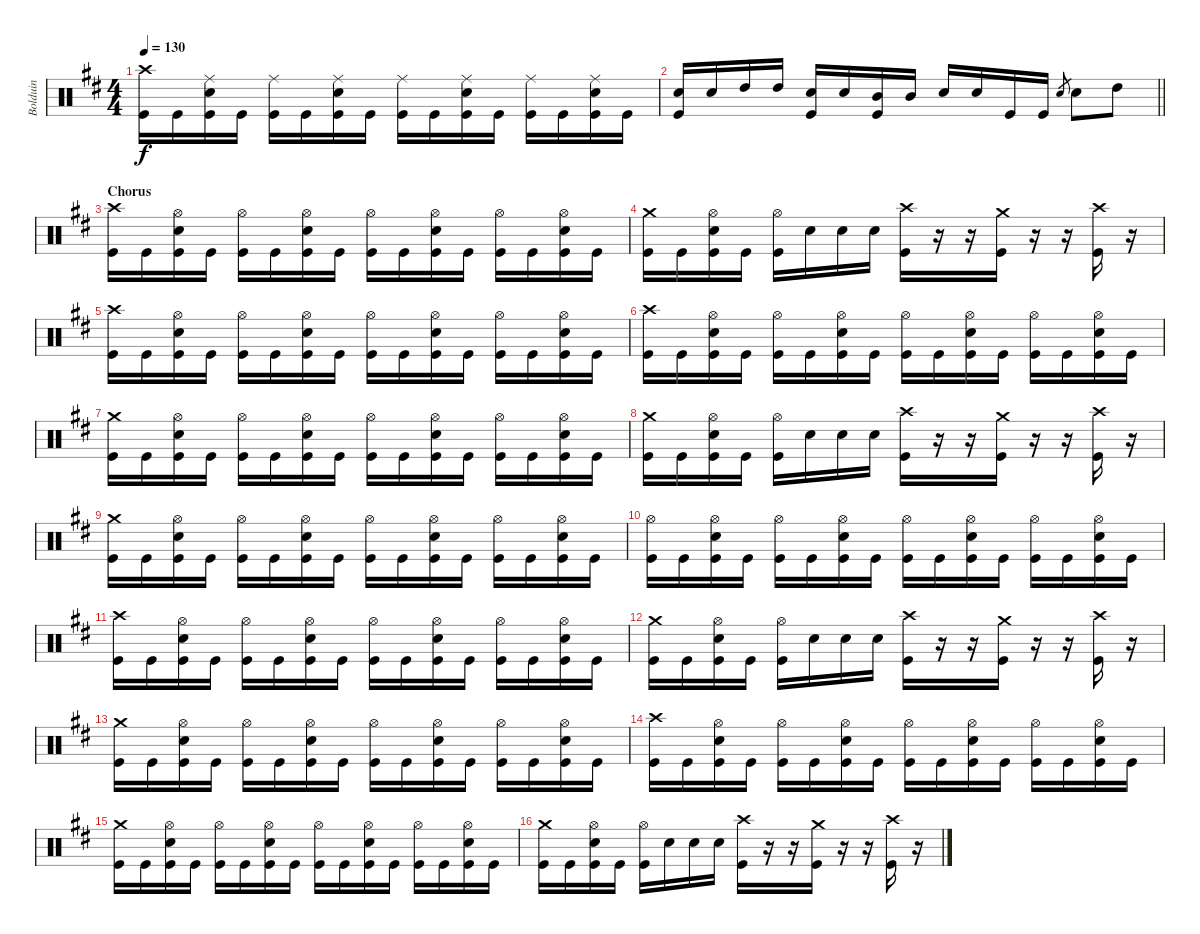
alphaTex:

\track ("Bolduin" "Bolduin") {instrument percussion}
\staff {score}
\articulation defaults
\ts (4 4)
\tempo 130
\clef neutral
\ks bminor
("Kick (hit)" "Crash high (hit)").16{dy f} "Kick (hit)".16 ("Kick (hit)" "Ride (middle)" "Snare (hit) 2").16 "Kick (hit)".16 ("Kick (hit)" "Ride (middle)").16 "Kick (hit)".16 ("Kick (hit)" "Ride (middle)" "Snare (hit) 2").16 "Kick (hit)".16 ("Kick (hit)" "Ride (middle)").16 "Kick (hit)".16 ("Kick (hit)" "Ride (middle)" "Snare (hit) 2").16 "Kick (hit)".16 ("Kick (hit)" "Ride (middle)").16 "Kick (hit)".16 ("Kick (hit)" "Ride (middle)" "Snare (hit) 2").16 "Kick (hit)".16 |
\barLineRight lightlight
("Snare (hit) 2" "Kick (hit)").16 "Snare (hit) 2".16 "High Tom (hit)".16 "High Tom (hit)".16 ("Snare (hit) 2" "Kick (hit)").16 "Snare (hit) 2".16 ("Kick (hit)" "Mid Tom (hit)").16 "Mid Tom (hit)".16 "Snare (hit) 2".16 "Snare (hit) 2".16 "Kick (hit)".16 "Kick (hit)".16 "Snare (hit) 2".8{gr} "Snare (hit) 2".8 "High Tom (hit)".8 |
\section ("" "Chorus")
("Crash high (hit)" "Kick (hit)").16 "Kick (hit)".16 ("Hi-Hat (open)" "Kick (hit)" "Snare (hit) 2").16 "Kick (hit)".16 ("Hi-Hat (open)" "Kick (hit)").16 "Kick (hit)".16 ("Hi-Hat (open)" "Kick (hit)" "Snare (hit) 2").16 "Kick (hit)".16 ("Hi-Hat (open)" "Kick (hit)").16 "Kick (hit)".16 ("Hi-Hat (open)" "Kick (hit)" "Snare (hit) 2").16 "Kick (hit)".16 ("Hi-Hat (open)" "Kick (hit)").16 "Kick (hit)".16 ("Hi-Hat (open)" "Kick (hit)" "Snare (hit) 2").16 "Kick (hit)".16 |
("Crash medium (hit)" "Kick (hit)").16 "Kick (hit)".16 ("Hi-Hat (open)" "Kick (hit)" "Snare (hit) 2").16 "Kick (hit)".16 ("Hi-Hat (open)" "Kick (hit)").16 "Snare (hit) 2".16 "Snare (hit) 2".16 "Snare (hit) 2".16 ("Kick (hit)" "Crash high (hit)").16 r.16 r.16 ("Crash medium (hit)" "Kick (hit)").16 r.16 r.16 ("Kick (hit)" "Crash high (hit)").16 r.16 |
("Kick (hit)" "Crash high (hit)").16 "Kick (hit)".16 ("Kick (hit)" "Hi-Hat (open)" "Snare (hit) 2").16 "Kick (hit)".16 ("Kick (hit)" "Hi-Hat (open)").16 "Kick (hit)".16 ("Kick (hit)" "Hi-Hat (open)" "Snare (hit) 2").16 "Kick (hit)".16 ("Kick (hit)" "Hi-Hat (open)").16 "Kick (hit)".16 ("Kick (hit)" "Hi-Hat (open)" "Snare (hit) 2").16 "Kick (hit)".16 ("Kick (hit)" "Hi-Hat (open)").16 "Kick (hit)".16 ("Kick (hit)" "Hi-Hat (open)" "Snare (hit) 2").16 "Kick (hit)".16 |
("Kick (hit)" "Crash high (hit)").16 "Kick (hit)".16 ("Kick (hit)" "Hi-Hat (open)" "Snare (hit) 2").16 "Kick (hit)".16 ("Kick (hit)" "Hi-Hat (open)").16 "Kick (hit)".16 ("Kick (hit)" "Hi-Hat (open)" "Snare (hit) 2").16 "Kick (hit)".16 ("Kick (hit)" "Hi-Hat (open)").16 "Kick (hit)".16 ("Kick (hit)" "Hi-Hat (open)" "Snare (hit) 2").16 "Kick (hit)".16 ("Kick (hit)" "Hi-Hat (open)").16 "Kick (hit)".16 ("Kick (hit)" "Hi-Hat (open)" "Snare (hit) 2").16 "Kick (hit)".16 |
("Kick (hit)" "Crash medium (hit)").16 "Kick (hit)".16 ("Kick (hit)" "Hi-Hat (open)" "Snare (hit) 2").16 "Kick (hit)".16 ("Kick (hit)" "Hi-Hat (open)").16 "Kick (hit)".16 ("Kick (hit)" "Hi-Hat (open)" "Snare (hit) 2").16 "Kick (hit)".16 ("Kick (hit)" "Hi-Hat (open)").16 "Kick (hit)".16 ("Kick (hit)" "Hi-Hat (open)" "Snare (hit) 2").16 "Kick (hit)".16 ("Kick (hit)" "Hi-Hat (open)").16 "Kick (hit)".16 ("Kick (hit)" "Hi-Hat (open)" "Snare (hit) 2").16 "Kick (hit)".16 |
("Crash medium (hit)" "Kick (hit)").16 "Kick (hit)".16 ("Hi-Hat (open)" "Kick (hit)" "Snare (hit) 2").16 "Kick (hit)".16 ("Hi-Hat (open)" "Kick (hit)").16 "Snare (hit) 2".16 "Snare (hit) 2".16 "Snare (hit) 2".16 ("Kick (hit)" "Crash high (hit)").16 r.16 r.16 ("Crash medium (hit)" "Kick (hit)").16 r.16 r.16 ("Kick (hit)" "Crash high (hit)").16 r.16 |
("Kick (hit)" "Crash medium (hit)").16 "Kick (hit)".16 ("Kick (hit)" "Hi-Hat (open)" "Snare (hit) 2").16 "Kick (hit)".16 ("Kick (hit)" "Hi-Hat (open)").16 "Kick (hit)".16 ("Kick (hit)" "Hi-Hat (open)" "Snare (hit) 2").16 "Kick (hit)".16 ("Kick (hit)" "Hi-Hat (open)").16 "Kick (hit)".16 ("Kick (hit)" "Hi-Hat (open)" "Snare (hit) 2").16 "Kick (hit)".16 ("Kick (hit)" "Hi-Hat (open)").16 "Kick (hit)".16 ("Kick (hit)" "Hi-Hat (open)" "Snare (hit) 2").16 "Kick (hit)".16 |
("Kick (hit)" "Hi-Hat (open)").16 "Kick (hit)".16 ("Kick (hit)" "Hi-Hat (open)" "Snare (hit) 2").16 "Kick (hit)".16 ("Kick (hit)" "Hi-Hat (open)").16 "Kick (hit)".16 ("Kick (hit)" "Hi-Hat (open)" "Snare (hit) 2").16 "Kick (hit)".16 ("Kick (hit)" "Hi-Hat (open)").16 "Kick (hit)".16 ("Kick (hit)" "Hi-Hat (open)" "Snare (hit) 2").16 "Kick (hit)".16 ("Kick (hit)" "Hi-Hat (open)").16 "Kick (hit)".16 ("Kick (hit)" "Hi-Hat (open)" "Snare (hit) 2").16 "Kick (hit)".16 |
("Kick (hit)" "Crash high (hit)").16 "Kick (hit)".16 ("Kick (hit)" "Hi-Hat (open)" "Snare (hit) 2").16 "Kick (hit)".16 ("Kick (hit)" "Hi-Hat (open)").16 "Kick (hit)".16 ("Kick (hit)" "Hi-Hat (open)" "Snare (hit) 2").16 "Kick (hit)".16 ("Kick (hit)" "Hi-Hat (open)").16 "Kick (hit)".16 ("Kick (hit)" "Hi-Hat (open)" "Snare (hit) 2").16 "Kick (hit)".16 ("Kick (hit)" "Hi-Hat (open)").16 "Kick (hit)".16 ("Kick (hit)" "Hi-Hat (open)" "Snare (hit) 2").16 "Kick (hit)".16 |
("Crash medium (hit)" "Kick (hit)").16 "Kick (hit)".16 ("Hi-Hat (open)" "Kick (hit)" "Snare (hit) 2").16 "Kick (hit)".16 ("Hi-Hat (open)" "Kick (hit)").16 "Snare (hit) 2".16 "Snare (hit) 2".16 "Snare (hit) 2".16 ("Kick (hit)" "Crash high (hit)").16 r.16 r.16 ("Crash medium (hit)" "Kick (hit)").16 r.16 r.16 ("Kick (hit)" "Crash high (hit)").16 r.16 |
("Kick (hit)" "Crash medium (hit)").16 "Kick (hit)".16 ("Kick (hit)" "Hi-Hat (open)" "Snare (hit) 2").16 "Kick (hit)".16 ("Kick (hit)" "Hi-Hat (open)").16 "Kick (hit)".16 ("Kick (hit)" "Hi-Hat (open)" "Snare (hit) 2").16 "Kick (hit)".16 ("Kick (hit)" "Hi-Hat (open)").16 "Kick (hit)".16 ("Kick (hit)" "Hi-Hat (open)" "Snare (hit) 2").16 "Kick (hit)".16 ("Kick (hit)" "Hi-Hat (open)").16 "Kick (hit)".16 ("Kick (hit)" "Hi-Hat (open)" "Snare (hit) 2").16 "Kick (hit)".16 |
("Kick (hit)" "Crash high (hit)").16 "Kick (hit)".16 ("Kick (hit)" "Hi-Hat (open)" "Snare (hit) 2").16 "Kick (hit)".16 ("Kick (hit)" "Hi-Hat (open)").16 "Kick (hit)".16 ("Kick (hit)" "Hi-Hat (open)" "Snare (hit) 2").16 "Kick (hit)".16 ("Kick (hit)" "Hi-Hat (open)").16 "Kick (hit)".16 ("Kick (hit)" "Hi-Hat (open)" "Snare (hit) 2").16 "Kick (hit)".16 ("Kick (hit)" "Hi-Hat (open)").16 "Kick (hit)".16 ("Kick (hit)" "Hi-Hat (open)" "Snare (hit) 2").16 "Kick (hit)".16 |
("Kick (hit)" "Crash medium (hit)").16 "Kick (hit)".16 ("Kick (hit)" "Hi-Hat (open)" "Snare (hit) 2").16 "Kick (hit)".16 ("Kick (hit)" "Hi-Hat (open)").16 "Kick (hit)".16 ("Kick (hit)" "Hi-Hat (open)" "Snare (hit) 2").16 "Kick (hit)".16 ("Kick (hit)" "Hi-Hat (open)").16 "Kick (hit)".16 ("Kick (hit)" "Hi-Hat (open)" "Snare (hit) 2").16 "Kick (hit)".16 ("Kick (hit)" "Hi-Hat (open)").16 "Kick (hit)".16 ("Kick (hit)" "Hi-Hat (open)" "Snare (hit) 2").16 "Kick (hit)".16 |
("Crash medium (hit)" "Kick (hit)").16 "Kick (hit)".16 ("Hi-Hat (open)" "Kick (hit)" "Snare (hit) 2").16 "Kick (hit)".16 ("Hi-Hat (open)" "Kick (hit)").16 "Snare (hit) 2".16 "Snare (hit) 2".16 "Snare (hit) 2".16 ("Kick (hit)" "Crash high (hit)").16 r.16 r.16 ("Crash medium (hit)" "Kick (hit)").16 r.16 r.16 ("Kick (hit)" "Crash high (hit)").16 r.16
